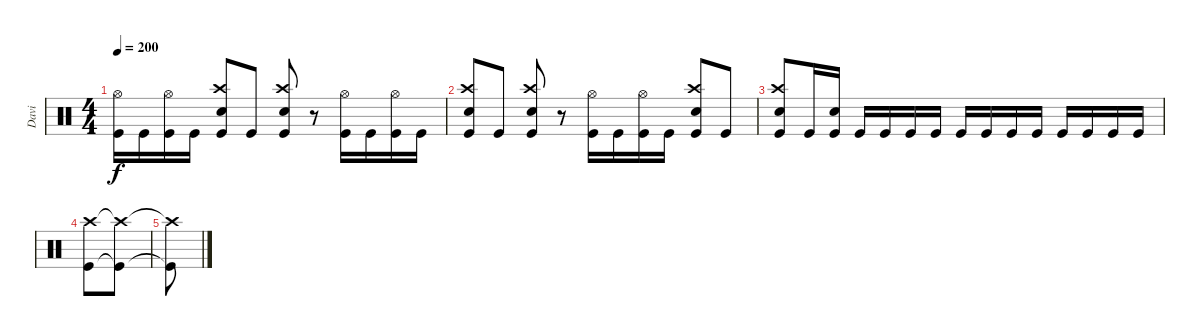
\track ("Davi" "Davi") {instrument percussion}
\staff {score}
\articulation defaults
\ts (4 4)
\tempo 200
\clef neutral
\ks c
("Hi-Hat (open)" "Kick (hit)").16{dy f} "Kick (hit)".16 ("Hi-Hat (open)" "Kick (hit)").16 "Kick (hit)".16 ("Crash high (hit)" "Electric Snare (hit)" "Kick (hit)").8 "Kick (hit)".8 ("Crash high (hit)" "Electric Snare (hit)" "Kick (hit)").8 r.8 ("Hi-Hat (open)" "Kick (hit)").16 "Kick (hit)".16 ("Hi-Hat (open)" "Kick (hit)").16 "Kick (hit)".16 |
("Crash high (hit)" "Electric Snare (hit)" "Kick (hit)").8 "Kick (hit)".8 ("Crash high (hit)" "Electric Snare (hit)" "Kick (hit)").8 r.8 ("Hi-Hat (open)" "Kick (hit)").16 "Kick (hit)".16 ("Hi-Hat (open)" "Kick (hit)").16 "Kick (hit)".16 ("Crash high (hit)" "Electric Snare (hit)" "Kick (hit)").8 "Kick (hit)".8 |
("Crash high (hit)" "Electric Snare (hit)" "Kick (hit)").8 "Kick (hit)".16 ("Electric Snare (hit)" "Kick (hit)").16 "Kick (hit)".16 "Kick (hit)".16 "Kick (hit)".16 "Kick (hit)".16 "Kick (hit)".16 "Kick (hit)".16 "Kick (hit)".16 "Kick (hit)".16 "Kick (hit)".16 "Kick (hit)".16 "Kick (hit)".16 "Kick (hit)".16 |
("Crash high (hit)" "Kick (hit)").8 ("Crash high (hit)"{t} "Kick (hit)"{t}).8 |
("Crash high (hit)"{t} "Kick (hit)"{t}).8
